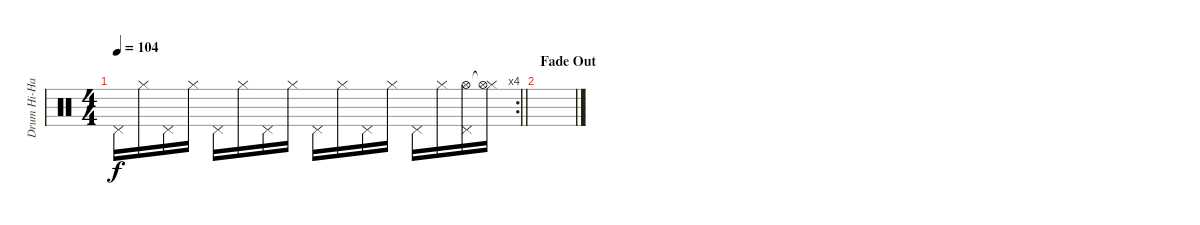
\track ("Drum Hi-Hat" "Drum Hi-Ha") {instrument percussion}
\staff {score}
\articulation defaults
\rc 4
\ts (4 4)
\tempo 104
\clef neutral
\barLineRight lightlight
\ks c "Pedal Hi-Hat (hit)".16{dy f} "Hi-Hat (closed)".16 "Pedal Hi-Hat (hit)".16 "Hi-Hat (closed)".16 "Pedal Hi-Hat (hit)".16 "Hi-Hat (closed)".16 "Pedal Hi-Hat (hit)".16 "Hi-Hat (closed)".16 "Pedal Hi-Hat (hit)".16 "Hi-Hat (closed)".16 "Pedal Hi-Hat (hit)".16 "Hi-Hat (closed)".16 "Pedal Hi-Hat (hit)".16 "Hi-Hat (closed)".16
("Pedal Hi-Hat (hit)" "Hi-Hat (open)").16 ("Hi-Hat (closed)" "Hi-Hat (open)"{t}).16 |
\section ("" "Fade Out")
